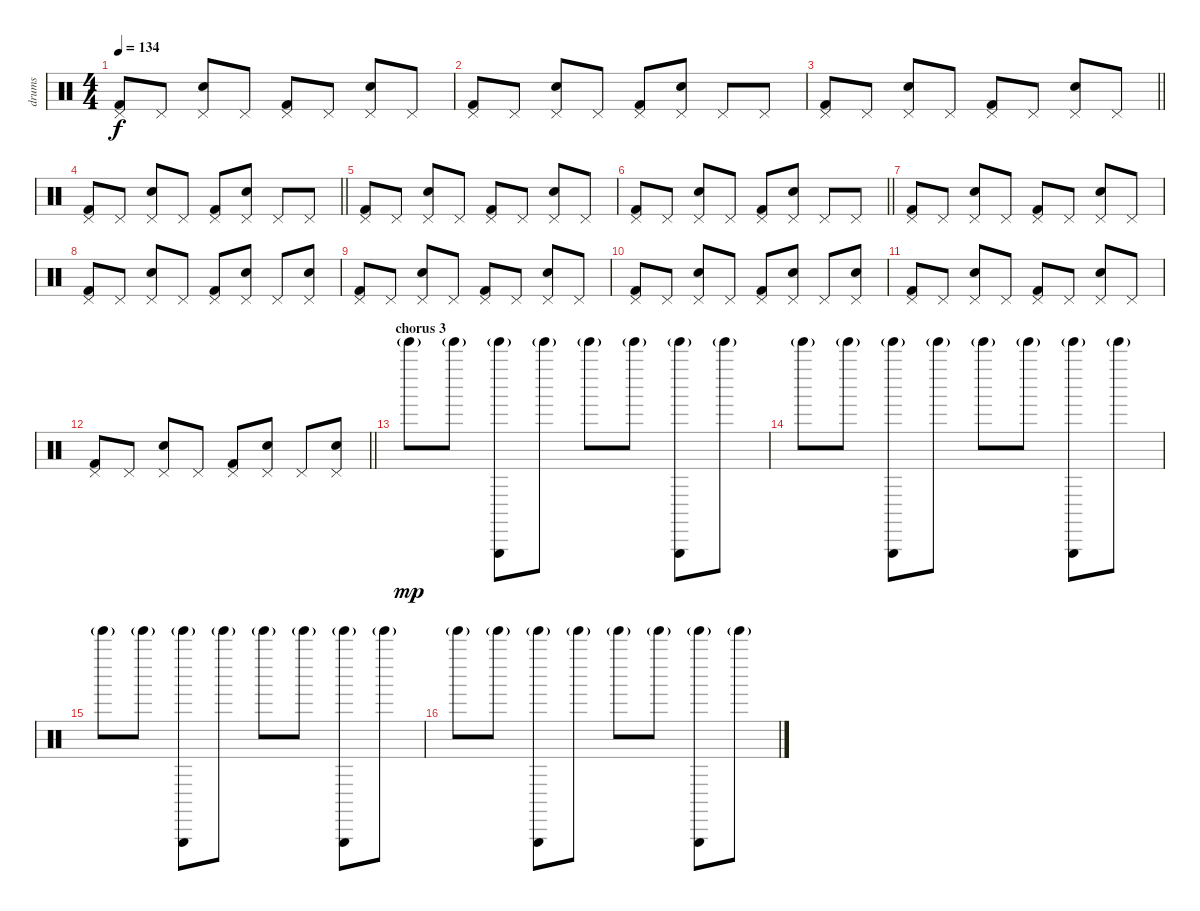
\track ("drums" "drums") {instrument percussion}
\staff {score}
\articulation defaults
\ts (4 4)
\tempo 134
\clef neutral
\ks c
("Kick (hit) 2" "Pedal Hi-Hat (hit)").8{dy f} "Pedal Hi-Hat (hit)".8 ("Snare (hit) 2" "Pedal Hi-Hat (hit)").8 "Pedal Hi-Hat (hit)".8 ("Kick (hit) 2" "Pedal Hi-Hat (hit)").8 "Pedal Hi-Hat (hit)".8 ("Snare (hit) 2" "Pedal Hi-Hat (hit)").8 "Pedal Hi-Hat (hit)".8 |
("Kick (hit) 2" "Pedal Hi-Hat (hit)").8 "Pedal Hi-Hat (hit)".8 ("Snare (hit) 2" "Pedal Hi-Hat (hit)").8 "Pedal Hi-Hat (hit)".8 ("Kick (hit) 2" "Pedal Hi-Hat (hit)").8 ("Snare (hit) 2" "Pedal Hi-Hat (hit)").8 "Pedal Hi-Hat (hit)".8 "Pedal Hi-Hat (hit)".8 |
\barLineRight lightlight
("Kick (hit) 2" "Pedal Hi-Hat (hit)").8 "Pedal Hi-Hat (hit)".8 ("Snare (hit) 2" "Pedal Hi-Hat (hit)").8 "Pedal Hi-Hat (hit)".8 ("Kick (hit) 2" "Pedal Hi-Hat (hit)").8 "Pedal Hi-Hat (hit)".8 ("Snare (hit) 2" "Pedal Hi-Hat (hit)").8 "Pedal Hi-Hat (hit)".8 |
\barLineRight lightlight
("Kick (hit) 2" "Pedal Hi-Hat (hit)").8 "Pedal Hi-Hat (hit)".8 ("Snare (hit) 2" "Pedal Hi-Hat (hit)").8 "Pedal Hi-Hat (hit)".8 ("Kick (hit) 2" "Pedal Hi-Hat (hit)").8 ("Snare (hit) 2" "Pedal Hi-Hat (hit)").8 "Pedal Hi-Hat (hit)".8 "Pedal Hi-Hat (hit)".8 |
("Kick (hit) 2" "Pedal Hi-Hat (hit)").8 "Pedal Hi-Hat (hit)".8 ("Snare (hit) 2" "Pedal Hi-Hat (hit)").8 "Pedal Hi-Hat (hit)".8 ("Kick (hit) 2" "Pedal Hi-Hat (hit)").8 "Pedal Hi-Hat (hit)".8 ("Snare (hit) 2" "Pedal Hi-Hat (hit)").8 "Pedal Hi-Hat (hit)".8 |
\barLineRight lightlight
("Kick (hit) 2" "Pedal Hi-Hat (hit)").8 "Pedal Hi-Hat (hit)".8 ("Snare (hit) 2" "Pedal Hi-Hat (hit)").8 "Pedal Hi-Hat (hit)".8 ("Kick (hit) 2" "Pedal Hi-Hat (hit)").8 ("Snare (hit) 2" "Pedal Hi-Hat (hit)").8 "Pedal Hi-Hat (hit)".8 "Pedal Hi-Hat (hit)".8 |
("Kick (hit) 2" "Pedal Hi-Hat (hit)").8 "Pedal Hi-Hat (hit)".8 ("Snare (hit) 2" "Pedal Hi-Hat (hit)").8 "Pedal Hi-Hat (hit)".8 ("Kick (hit) 2" "Pedal Hi-Hat (hit)").8 "Pedal Hi-Hat (hit)".8 ("Snare (hit) 2" "Pedal Hi-Hat (hit)").8 "Pedal Hi-Hat (hit)".8 |
("Kick (hit) 2" "Pedal Hi-Hat (hit)").8 "Pedal Hi-Hat (hit)".8 ("Snare (hit) 2" "Pedal Hi-Hat (hit)").8 "Pedal Hi-Hat (hit)".8 ("Kick (hit) 2" "Pedal Hi-Hat (hit)").8 ("Snare (hit) 2" "Pedal Hi-Hat (hit)").8 "Pedal Hi-Hat (hit)".8 ("Snare (hit) 2" "Pedal Hi-Hat (hit)").8 |
("Kick (hit) 2" "Pedal Hi-Hat (hit)").8 "Pedal Hi-Hat (hit)".8 ("Snare (hit) 2" "Pedal Hi-Hat (hit)").8 "Pedal Hi-Hat (hit)".8 ("Kick (hit) 2" "Pedal Hi-Hat (hit)").8 "Pedal Hi-Hat (hit)".8 ("Snare (hit) 2" "Pedal Hi-Hat (hit)").8 "Pedal Hi-Hat (hit)".8 |
("Kick (hit) 2" "Pedal Hi-Hat (hit)").8 "Pedal Hi-Hat (hit)".8 ("Snare (hit) 2" "Pedal Hi-Hat (hit)").8 "Pedal Hi-Hat (hit)".8 ("Kick (hit) 2" "Pedal Hi-Hat (hit)").8 ("Snare (hit) 2" "Pedal Hi-Hat (hit)").8 "Pedal Hi-Hat (hit)".8 ("Snare (hit) 2" "Pedal Hi-Hat (hit)").8 |
("Kick (hit) 2" "Pedal Hi-Hat (hit)").8 "Pedal Hi-Hat (hit)".8 ("Snare (hit) 2" "Pedal Hi-Hat (hit)").8 "Pedal Hi-Hat (hit)".8 ("Kick (hit) 2" "Pedal Hi-Hat (hit)").8 "Pedal Hi-Hat (hit)".8 ("Snare (hit) 2" "Pedal Hi-Hat (hit)").8 "Pedal Hi-Hat (hit)".8 |
\barLineRight lightlight
("Kick (hit) 2" "Pedal Hi-Hat (hit)").8 "Pedal Hi-Hat (hit)".8 ("Snare (hit) 2" "Pedal Hi-Hat (hit)").8 "Pedal Hi-Hat (hit)".8 ("Kick (hit) 2" "Pedal Hi-Hat (hit)").8 ("Snare (hit) 2" "Pedal Hi-Hat (hit)").8 "Pedal Hi-Hat (hit)".8 ("Snare (hit) 2" "Pedal Hi-Hat (hit)").8 |
\section ("" "chorus 3")
"Tinkle Bell (hit)"{g}.8{dy mp} "Tinkle Bell (hit)"{g}.8 ("Triangle (hit)" "Tinkle Bell (hit)"{g}).8 "Tinkle Bell (hit)"{g}.8 "Tinkle Bell (hit)"{g}.8 "Tinkle Bell (hit)"{g}.8 ("Triangle (hit)" "Tinkle Bell (hit)"{g}).8 "Tinkle Bell (hit)"{g}.8 |
"Tinkle Bell (hit)"{g}.8 "Tinkle Bell (hit)"{g}.8 ("Triangle (hit)" "Tinkle Bell (hit)"{g}).8 "Tinkle Bell (hit)"{g}.8 "Tinkle Bell (hit)"{g}.8 "Tinkle Bell (hit)"{g}.8 ("Triangle (hit)" "Tinkle Bell (hit)"{g}).8 "Tinkle Bell (hit)"{g}.8 |
"Tinkle Bell (hit)"{g}.8 "Tinkle Bell (hit)"{g}.8 ("Triangle (hit)" "Tinkle Bell (hit)"{g}).8 "Tinkle Bell (hit)"{g}.8 "Tinkle Bell (hit)"{g}.8 "Tinkle Bell (hit)"{g}.8 ("Triangle (hit)" "Tinkle Bell (hit)"{g}).8 "Tinkle Bell (hit)"{g}.8 |
"Tinkle Bell (hit)"{g}.8 "Tinkle Bell (hit)"{g}.8 ("Triangle (hit)" "Tinkle Bell (hit)"{g}).8 "Tinkle Bell (hit)"{g}.8 "Tinkle Bell (hit)"{g}.8 "Tinkle Bell (hit)"{g}.8 ("Triangle (hit)" "Tinkle Bell (hit)"{g}).8 "Tinkle Bell (hit)"{g}.8
